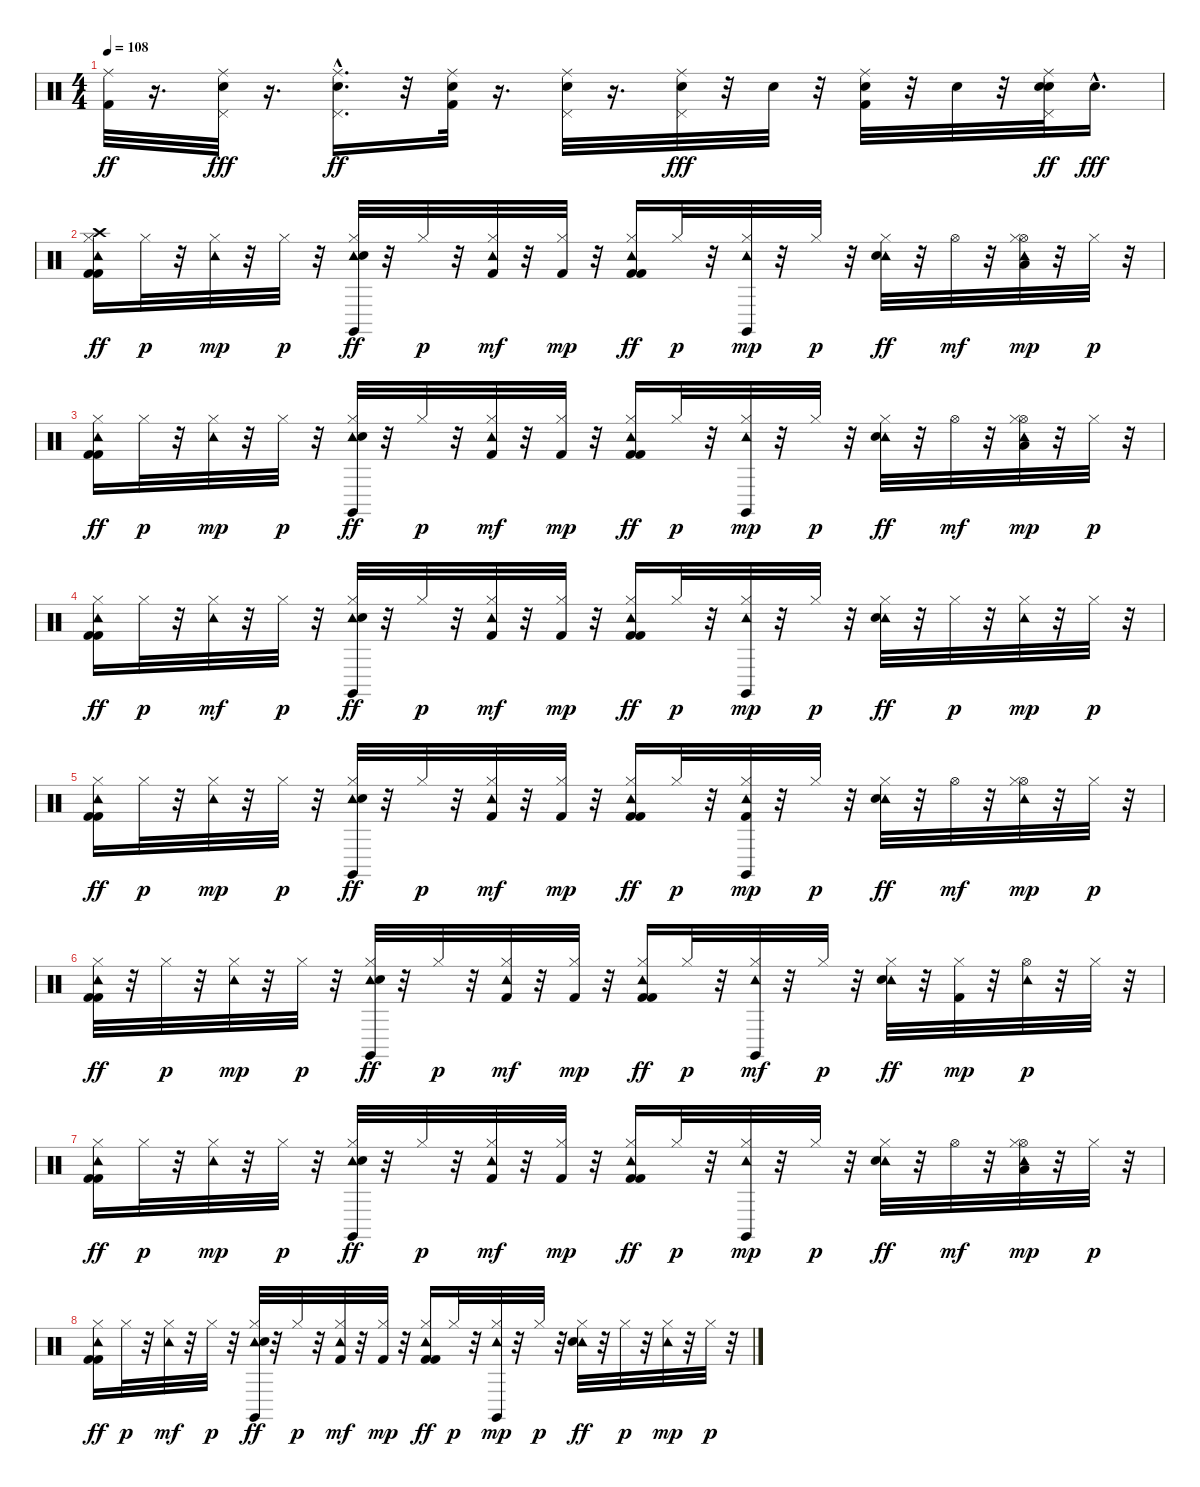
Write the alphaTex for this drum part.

\track "" {instrument percussion}
\staff {score}
\articulation defaults
\ts (4 4)
\tempo 108
\clef neutral
\ks c
("Ride (middle)" "Kick (hit) 2").32{dy ff} r.16{d} ("Pedal Hi-Hat (hit)" "Ride (middle)" "Snare (hit) 2").32{dy fff} r.16{d} ("Snare (hit) 2"{hac} "Pedal Hi-Hat (hit)" "Ride (middle)").16{d dy ff} r.32 ("Snare (hit) 2" "Ride (middle)" "Kick (hit) 2").32 r.16{d} ("Pedal Hi-Hat (hit)" "Ride (middle)" "Snare (hit) 2").32 r.16{d} ("Pedal Hi-Hat (hit)" "Ride (middle)" "Snare (hit) 2").32{dy fff} r.32 "Snare (hit) 2".32 r.32 ("Ride (middle)" "Kick (hit) 2" "Snare (hit) 2").32 r.32 "Snare (hit) 2".32 r.32 ("Pedal Hi-Hat (hit)" "Ride (middle)" "Snare (hit) 2" "Snare (hit) 2").32{dy ff} "Snare (hit) 2"{hac}.16{d dy fff} |
("Tambourine (hit)" "Kick (hit) 2" "Crash high (hit)" "Hi-Hat (closed)" "Kick (hit) 2").16{dy ff} "Hi-Hat (closed)".32{dy p} r.32 ("Tambourine (hit)" "Hi-Hat (closed)").32{dy mp} r.32 "Hi-Hat (closed)".32{dy p} r.32 ("Tambourine (hit)" "Claves (hit)" "Hi-Hat (closed)" "Snare (hit) 2").32{dy ff} r.32 "Hi-Hat (closed)".32{dy p} r.32 ("Kick (hit) 2" "Tambourine (hit)" "Hi-Hat (closed)").32{dy mf} r.32 ("Hi-Hat (closed)" "Kick (hit) 2").32{dy mp} r.32 ("Tambourine (hit)" "Kick (hit) 2" "Hi-Hat (closed)" "Kick (hit) 2").16{dy ff} "Hi-Hat (closed)".32{dy p} r.32 ("Tambourine (hit)" "Claves (hit)" "Hi-Hat (closed)").32{dy mp} r.32 "Hi-Hat (closed)".32{dy p} r.32 ("Tambourine (hit)" "Hi-Hat (closed)" "Snare (hit) 2").32{dy ff} r.32 "Hi-Hat (open)".32{dy mf} r.32 ("Tambourine (hit)" "Hi-Hat (open)" "Low Tom (hit)" "Hi-Hat (closed)").32{dy mp} r.32 "Hi-Hat (closed)".32{dy p} r.32 |
("Tambourine (hit)" "Kick (hit) 2" "Hi-Hat (closed)" "Kick (hit) 2").16{dy ff} "Hi-Hat (closed)".32{dy p} r.32 ("Tambourine (hit)" "Hi-Hat (closed)").32{dy mp} r.32 "Hi-Hat (closed)".32{dy p} r.32 ("Tambourine (hit)" "Claves (hit)" "Hi-Hat (closed)" "Snare (hit) 2").32{dy ff} r.32 "Hi-Hat (closed)".32{dy p} r.32 ("Kick (hit) 2" "Tambourine (hit)" "Hi-Hat (closed)").32{dy mf} r.32 ("Hi-Hat (closed)" "Kick (hit) 2").32{dy mp} r.32 ("Tambourine (hit)" "Kick (hit) 2" "Hi-Hat (closed)" "Kick (hit) 2").16{dy ff} "Hi-Hat (closed)".32{dy p} r.32 ("Tambourine (hit)" "Claves (hit)" "Hi-Hat (closed)").32{dy mp} r.32 "Hi-Hat (closed)".32{dy p} r.32 ("Tambourine (hit)" "Hi-Hat (closed)" "Snare (hit) 2").32{dy ff} r.32 "Hi-Hat (open)".32{dy mf} r.32 ("Tambourine (hit)" "Hi-Hat (open)" "Low Tom (hit)" "Hi-Hat (closed)").32{dy mp} r.32 "Hi-Hat (closed)".32{dy p} r.32 |
("Tambourine (hit)" "Kick (hit) 2" "Hi-Hat (closed)" "Kick (hit) 2").16{dy ff} "Hi-Hat (closed)".32{dy p} r.32 ("Tambourine (hit)" "Hi-Hat (closed)").32{dy mf} r.32 "Hi-Hat (closed)".32{dy p} r.32 ("Tambourine (hit)" "Claves (hit)" "Hi-Hat (closed)" "Snare (hit) 2").32{dy ff} r.32 "Hi-Hat (closed)".32{dy p} r.32 ("Tambourine (hit)" "Kick (hit) 2" "Hi-Hat (closed)").32{dy mf} r.32 ("Hi-Hat (closed)" "Kick (hit) 2").32{dy mp} r.32 ("Kick (hit) 2" "Tambourine (hit)" "Hi-Hat (closed)" "Kick (hit) 2").16{dy ff} "Hi-Hat (closed)".32{dy p} r.32 ("Tambourine (hit)" "Claves (hit)" "Hi-Hat (closed)").32{dy mp} r.32 "Hi-Hat (closed)".32{dy p} r.32 ("Tambourine (hit)" "Hi-Hat (closed)" "Snare (hit) 2").32{dy ff} r.32 "Hi-Hat (closed)".32{dy p} r.32 ("Tambourine (hit)" "Hi-Hat (closed)").32{dy mp} r.32 "Hi-Hat (closed)".32{dy p} r.32 |
("Tambourine (hit)" "Kick (hit) 2" "Hi-Hat (closed)" "Kick (hit) 2").16{dy ff} "Hi-Hat (closed)".32{dy p} r.32 ("Hi-Hat (closed)" "Tambourine (hit)").32{dy mp} r.32 "Hi-Hat (closed)".32{dy p} r.32 ("Tambourine (hit)" "Claves (hit)" "Hi-Hat (closed)" "Snare (hit) 2").32{dy ff} r.32 "Hi-Hat (closed)".32{dy p} r.32 ("Tambourine (hit)" "Kick (hit) 2" "Hi-Hat (closed)").32{dy mf} r.32 ("Hi-Hat (closed)" "Kick (hit) 2").32{dy mp} r.32 ("Tambourine (hit)" "Kick (hit) 2" "Hi-Hat (closed)" "Kick (hit) 2").16{dy ff} "Hi-Hat (closed)".32{dy p} r.32 ("Tambourine (hit)" "Kick (hit) 2" "Claves (hit)" "Hi-Hat (closed)").32{dy mp} r.32 "Hi-Hat (closed)".32{dy p} r.32 ("Tambourine (hit)" "Hi-Hat (closed)" "Snare (hit) 2").32{dy ff} r.32 "Hi-Hat (open)".32{dy mf} r.32 ("Tambourine (hit)" "Hi-Hat (open)" "Hi-Hat (closed)").32{dy mp} r.32 "Hi-Hat (closed)".32{dy p} r.32 |
("Tambourine (hit)" "Kick (hit) 2" "Hi-Hat (closed)" "Kick (hit) 2").32{dy ff} r.32 "Hi-Hat (closed)".32{dy p} r.32 ("Tambourine (hit)" "Hi-Hat (closed)").32{dy mp} r.32 "Hi-Hat (closed)".32{dy p} r.32 ("Tambourine (hit)" "Claves (hit)" "Hi-Hat (closed)" "Snare (hit) 2").32{dy ff} r.32 "Hi-Hat (closed)".32{dy p} r.32 ("Kick (hit) 2" "Tambourine (hit)" "Hi-Hat (closed)").32{dy mf} r.32 ("Hi-Hat (closed)" "Kick (hit) 2").32{dy mp} r.32 ("Tambourine (hit)" "Kick (hit) 2" "Hi-Hat (closed)" "Kick (hit) 2").16{dy ff} "Hi-Hat (closed)".32{dy p} r.32 ("Tambourine (hit)" "Claves (hit)" "Hi-Hat (closed)").32{dy mf} r.32 "Hi-Hat (closed)".32{dy p} r.32 ("Tambourine (hit)" "Hi-Hat (closed)" "Snare (hit) 2").32{dy ff} r.32 ("Hi-Hat (closed)" "Kick (hit) 2").32{dy mp} r.32 ("Tambourine (hit)" "Hi-Hat (open)").32{dy p} r.32 "Hi-Hat (closed)".32 r.32 |
("Tambourine (hit)" "Kick (hit) 2" "Hi-Hat (closed)" "Kick (hit) 2").16{dy ff} "Hi-Hat (closed)".32{dy p} r.32 ("Hi-Hat (closed)" "Tambourine (hit)").32{dy mp} r.32 "Hi-Hat (closed)".32{dy p} r.32 ("Tambourine (hit)" "Claves (hit)" "Hi-Hat (closed)" "Snare (hit) 2").32{dy ff} r.32 "Hi-Hat (closed)".32{dy p} r.32 ("Kick (hit) 2" "Tambourine (hit)" "Hi-Hat (closed)").32{dy mf} r.32 ("Hi-Hat (closed)" "Kick (hit) 2").32{dy mp} r.32 ("Tambourine (hit)" "Kick (hit) 2" "Hi-Hat (closed)" "Kick (hit) 2").16{dy ff} "Hi-Hat (closed)".32{dy p} r.32 ("Tambourine (hit)" "Claves (hit)" "Hi-Hat (closed)").32{dy mp} r.32 "Hi-Hat (closed)".32{dy p} r.32 ("Tambourine (hit)" "Hi-Hat (closed)" "Snare (hit) 2").32{dy ff} r.32 "Hi-Hat (open)".32{dy mf} r.32 ("Tambourine (hit)" "Hi-Hat (open)" "Low Tom (hit)" "Hi-Hat (closed)").32{dy mp} r.32 "Hi-Hat (closed)".32{dy p} r.32 |
("Kick (hit) 2" "Tambourine (hit)" "Hi-Hat (closed)" "Kick (hit) 2").16{dy ff} "Hi-Hat (closed)".32{dy p} r.32 ("Tambourine (hit)" "Hi-Hat (closed)").32{dy mf} r.32 "Hi-Hat (closed)".32{dy p} r.32 ("Tambourine (hit)" "Claves (hit)" "Hi-Hat (closed)" "Snare (hit) 2").32{dy ff} r.32 "Hi-Hat (closed)".32{dy p} r.32 ("Kick (hit) 2" "Tambourine (hit)" "Hi-Hat (closed)").32{dy mf} r.32 ("Hi-Hat (closed)" "Kick (hit) 2").32{dy mp} r.32 ("Tambourine (hit)" "Kick (hit) 2" "Hi-Hat (closed)" "Kick (hit) 2").16{dy ff} "Hi-Hat (closed)".32{dy p} r.32 ("Tambourine (hit)" "Claves (hit)" "Hi-Hat (closed)").32{dy mp} r.32 "Hi-Hat (closed)".32{dy p} r.32 ("Tambourine (hit)" "Hi-Hat (closed)" "Snare (hit) 2").32{dy ff} r.32 "Hi-Hat (closed)".32{dy p} r.32 ("Tambourine (hit)" "Hi-Hat (closed)").32{dy mp} r.32 "Hi-Hat (closed)".32{dy p} r.32
